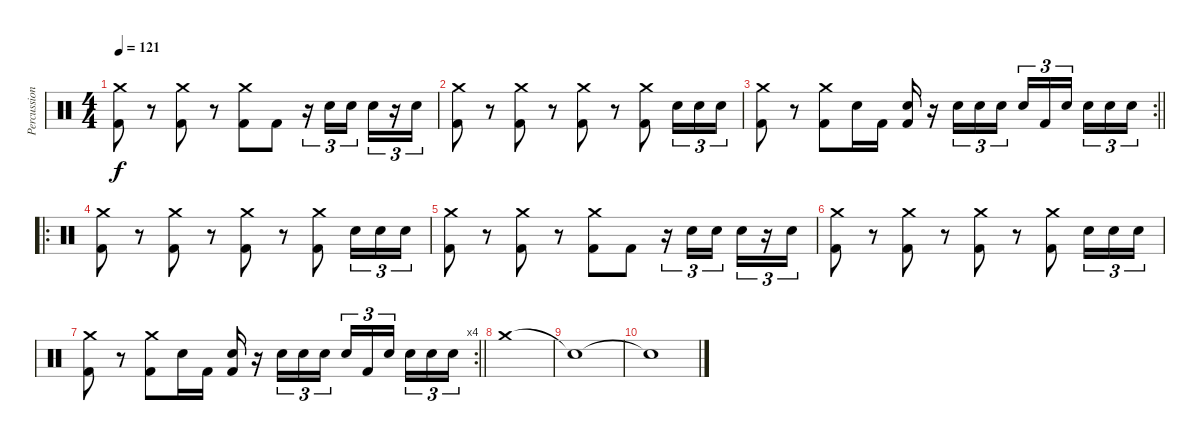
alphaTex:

\track ("Percussion" "Percussion") {instrument percussion}
\staff {score}
\articulation defaults
\ts (4 4)
\tempo 121
\clef neutral
\ks c
("Crash medium (hit)" "Kick (hit) 2").8{dy f} r.8 ("Crash medium (hit)" "Kick (hit) 2").8 r.8 ("Crash medium (hit)" "Kick (hit) 2").8 "Kick (hit) 2".8 r.16{tu (3 2)} "Electric Snare (hit)".16{tu (3 2)} "Electric Snare (hit)".16{tu (3 2) beam splitsecondary} "Electric Snare (hit)".16{tu (3 2)} r.16{tu (3 2)} "Electric Snare (hit)".16{tu (3 2)} |
("Crash medium (hit)" "Kick (hit) 2").8 r.8 ("Crash medium (hit)" "Kick (hit) 2").8 r.8 ("Crash medium (hit)" "Kick (hit) 2").8 r.8 ("Crash medium (hit)" "Kick (hit) 2").8 "Electric Snare (hit)".16{tu (3 2)} "Electric Snare (hit)".16{tu (3 2)} "Electric Snare (hit)".16{tu (3 2)} |
\rc 2
\barLineRight lightlight
("Crash medium (hit)" "Kick (hit) 2").8 r.8 ("Crash medium (hit)" "Kick (hit) 2").8 "Electric Snare (hit)".16 "Kick (hit) 2".16 ("Electric Snare (hit)" "Kick (hit) 2").16 r.16 "Electric Snare (hit)".16{tu (3 2)} "Electric Snare (hit)".16{tu (3 2)} "Electric Snare (hit)".16{tu (3 2)} "Electric Snare (hit)".16{tu (3 2)} "Kick (hit) 2".16{tu (3 2)} "Electric Snare (hit)".16{tu (3 2) beam splitsecondary} "Electric Snare (hit)".16{tu (3 2)} "Electric Snare (hit)".16{tu (3 2)} "Electric Snare (hit)".16{tu (3 2)} |
\ro
("Crash medium (hit)" "Kick (hit) 2").8 r.8 ("Crash medium (hit)" "Kick (hit) 2").8 r.8 ("Crash medium (hit)" "Kick (hit) 2").8 r.8 ("Crash medium (hit)" "Kick (hit) 2").8 "Electric Snare (hit)".16{tu (3 2)} "Electric Snare (hit)".16{tu (3 2)} "Electric Snare (hit)".16{tu (3 2)} |
("Crash medium (hit)" "Kick (hit) 2").8 r.8 ("Crash medium (hit)" "Kick (hit) 2").8 r.8 ("Crash medium (hit)" "Kick (hit) 2").8 "Kick (hit) 2".8 r.16{tu (3 2)} "Electric Snare (hit)".16{tu (3 2)} "Electric Snare (hit)".16{tu (3 2) beam splitsecondary} "Electric Snare (hit)".16{tu (3 2)} r.16{tu (3 2)} "Electric Snare (hit)".16{tu (3 2)} |
("Crash medium (hit)" "Kick (hit) 2").8 r.8 ("Crash medium (hit)" "Kick (hit) 2").8 r.8 ("Crash medium (hit)" "Kick (hit) 2").8 r.8 ("Crash medium (hit)" "Kick (hit) 2").8 "Electric Snare (hit)".16{tu (3 2)} "Electric Snare (hit)".16{tu (3 2)} "Electric Snare (hit)".16{tu (3 2)} |
\rc 4
\barLineRight lightlight
("Crash medium (hit)" "Kick (hit) 2").8 r.8 ("Crash medium (hit)" "Kick (hit) 2").8 "Electric Snare (hit)".16 "Kick (hit) 2".16 ("Electric Snare (hit)" "Kick (hit) 2").16 r.16 "Electric Snare (hit)".16{tu (3 2)} "Electric Snare (hit)".16{tu (3 2)} "Electric Snare (hit)".16{tu (3 2)} "Electric Snare (hit)".16{tu (3 2)} "Kick (hit) 2".16{tu (3 2)} "Electric Snare (hit)".16{tu (3 2) beam splitsecondary} "Electric Snare (hit)".16{tu (3 2)} "Electric Snare (hit)".16{tu (3 2)} "Electric Snare (hit)".16{tu (3 2)} |
"Crash medium (hit)".1 |
"Snare (hit)"{t}.1 |
"Snare (hit)"{t}.1
